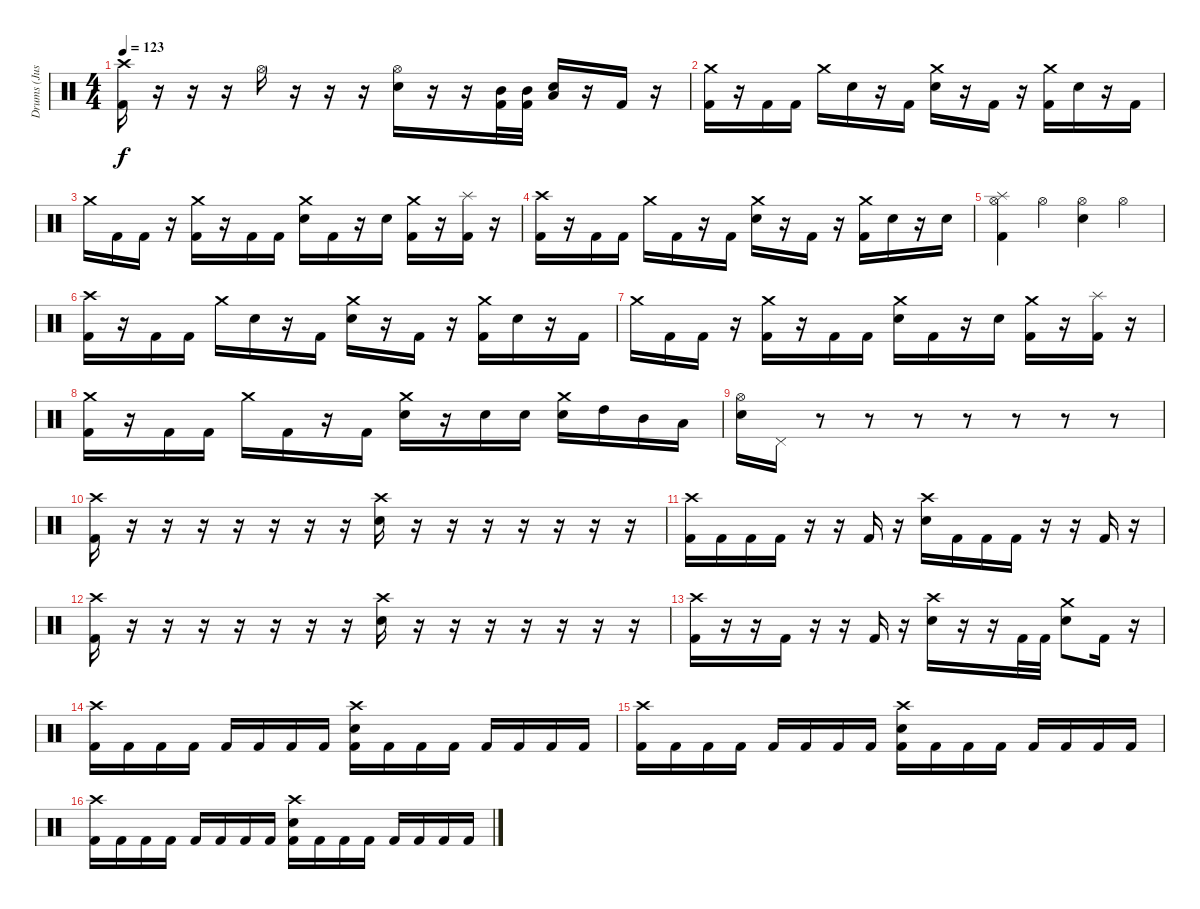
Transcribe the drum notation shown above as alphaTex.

\track ("Drums (Justin)" "Drums (Jus") {instrument percussion}
\staff {score}
\articulation defaults
\ts (4 4)
\tempo 123
\clef neutral
\ks c
("Crash high (hit)" "Kick (hit) 2").16{dy f} r.16 r.16 r.16 "Hi-Hat (open)".16 r.16 r.16 r.16 ("Electric Snare (hit)" "Hi-Hat (open)").16 r.16 r.16 ("Mid Tom (hit)" "Kick (hit) 2").32 ("Mid Tom (hit)" "Kick (hit) 2").32 ("Electric Snare (hit)" "Low Floor Tom (hit)").16 r.16 "Kick (hit) 2".16 r.16 |
("Crash medium (hit)" "Kick (hit) 2").16 r.16 "Kick (hit) 2".16 "Kick (hit) 2".16 "Crash medium (hit)".16 "Electric Snare (hit)".16 r.16 "Kick (hit) 2".16 ("Electric Snare (hit)" "Crash medium (hit)").16 r.16 "Kick (hit) 2".16 r.16 ("Crash medium (hit)" "Kick (hit) 2").16 "Electric Snare (hit)".16 r.16 "Kick (hit) 2".16 |
"Crash medium (hit)".16 "Kick (hit) 2".16 "Kick (hit) 2".16 r.16 ("Crash medium (hit)" "Kick (hit) 2").16 r.16 "Kick (hit) 2".16 "Kick (hit) 2".16 ("Electric Snare (hit)" "Crash medium (hit)").16 "Kick (hit) 2".16 r.16 "Electric Snare (hit)".16 ("Crash medium (hit)" "Kick (hit) 2").16 r.16 ("Splash (hit)" "Kick (hit) 2").16 r.16 |
("Crash high (hit)" "Kick (hit) 2").16 r.16 "Kick (hit) 2".16 "Kick (hit) 2".16 "Crash medium (hit)".16 "Kick (hit) 2".16 r.16 "Kick (hit) 2".16 ("Electric Snare (hit)" "Crash medium (hit)").16 r.16 "Kick (hit) 2".16 r.16 ("Crash medium (hit)" "Kick (hit) 2").16 "Electric Snare (hit)".16 r.16 "Electric Snare (hit)".16 |
("Splash (hit)" "Hi-Hat (open)" "Kick (hit) 2").4 "Hi-Hat (open)".4 ("Electric Snare (hit)" "Hi-Hat (open)").4 "Hi-Hat (open)".4 |
("Crash high (hit)" "Kick (hit) 2").16 r.16 "Kick (hit) 2".16 "Kick (hit) 2".16 "Crash medium (hit)".16 "Electric Snare (hit)".16 r.16 "Kick (hit) 2".16 ("Electric Snare (hit)" "Crash medium (hit)").16 r.16 "Kick (hit) 2".16 r.16 ("Crash medium (hit)" "Kick (hit) 2").16 "Electric Snare (hit)".16 r.16 "Kick (hit) 2".16 |
"Crash medium (hit)".16 "Kick (hit) 2".16 "Kick (hit) 2".16 r.16 ("Crash medium (hit)" "Kick (hit) 2").16 r.16 "Kick (hit) 2".16 "Kick (hit) 2".16 ("Electric Snare (hit)" "Crash medium (hit)").16 "Kick (hit) 2".16 r.16 "Electric Snare (hit)".16 ("Crash medium (hit)" "Kick (hit) 2").16 r.16 ("Splash (hit)" "Kick (hit) 2").16 r.16 |
("Crash medium (hit)" "Kick (hit) 2").16 r.16 "Kick (hit) 2".16 "Kick (hit) 2".16 "Crash medium (hit)".16 "Kick (hit) 2".16 r.16 "Kick (hit) 2".16 ("Electric Snare (hit)" "Crash medium (hit)").16 r.16 "Electric Snare (hit)".16 "Electric Snare (hit)".16 ("Electric Snare (hit)" "Crash medium (hit)").16 "High Tom (hit)".16 "Mid Tom (hit)".16 "Low Tom (hit)".16 |
("Electric Snare (hit)" "Hi-Hat (open)").16 "Pedal Hi-Hat (hit)".16 r.8 r.8 r.8 r.8 r.8 r.8 r.8 |
("Crash high (hit)" "Kick (hit) 2").16 r.16 r.16 r.16 r.16 r.16 r.16 r.16 ("Electric Snare (hit)" "Crash high (hit)").16 r.16 r.16 r.16 r.16 r.16 r.16 r.16 |
("Crash high (hit)" "Kick (hit) 2").16 "Kick (hit) 2".16 "Kick (hit) 2".16 "Kick (hit) 2".16 r.16 r.16 "Kick (hit) 2".16 r.16 ("Electric Snare (hit)" "Crash high (hit)").16 "Kick (hit) 2".16 "Kick (hit) 2".16 "Kick (hit) 2".16 r.16 r.16 "Kick (hit) 2".16 r.16 |
("Crash high (hit)" "Kick (hit) 2").16 r.16 r.16 r.16 r.16 r.16 r.16 r.16 ("Electric Snare (hit)" "Crash high (hit)").16 r.16 r.16 r.16 r.16 r.16 r.16 r.16 |
("Crash high (hit)" "Kick (hit) 2").16 r.16 r.16 "Kick (hit) 2".16 r.16 r.16 "Kick (hit) 2".16 r.16 ("Electric Snare (hit)" "Crash high (hit)").16 r.16 r.16 "Kick (hit) 2".32 "Kick (hit) 2".32 ("Electric Snare (hit)" "Crash medium (hit)").8 "Kick (hit) 2".16 r.16 |
("Crash high (hit)" "Kick (hit) 2").16 "Kick (hit) 2".16 "Kick (hit) 2".16 "Kick (hit) 2".16 "Kick (hit) 2".16 "Kick (hit) 2".16 "Kick (hit) 2".16 "Kick (hit) 2".16 ("Electric Snare (hit)" "Crash high (hit)" "Kick (hit) 2").16 "Kick (hit) 2".16 "Kick (hit) 2".16 "Kick (hit) 2".16 "Kick (hit) 2".16 "Kick (hit) 2".16 "Kick (hit) 2".16 "Kick (hit) 2".16 |
("Crash high (hit)" "Kick (hit) 2").16 "Kick (hit) 2".16 "Kick (hit) 2".16 "Kick (hit) 2".16 "Kick (hit) 2".16 "Kick (hit) 2".16 "Kick (hit) 2".16 "Kick (hit) 2".16 ("Electric Snare (hit)" "Crash high (hit)" "Kick (hit) 2").16 "Kick (hit) 2".16 "Kick (hit) 2".16 "Kick (hit) 2".16 "Kick (hit) 2".16 "Kick (hit) 2".16 "Kick (hit) 2".16 "Kick (hit) 2".16 |
("Crash high (hit)" "Kick (hit) 2").16 "Kick (hit) 2".16 "Kick (hit) 2".16 "Kick (hit) 2".16 "Kick (hit) 2".16 "Kick (hit) 2".16 "Kick (hit) 2".16 "Kick (hit) 2".16 ("Electric Snare (hit)" "Crash high (hit)" "Kick (hit) 2").16 "Kick (hit) 2".16 "Kick (hit) 2".16 "Kick (hit) 2".16 "Kick (hit) 2".16 "Kick (hit) 2".16 "Kick (hit) 2".16 "Kick (hit) 2".16
